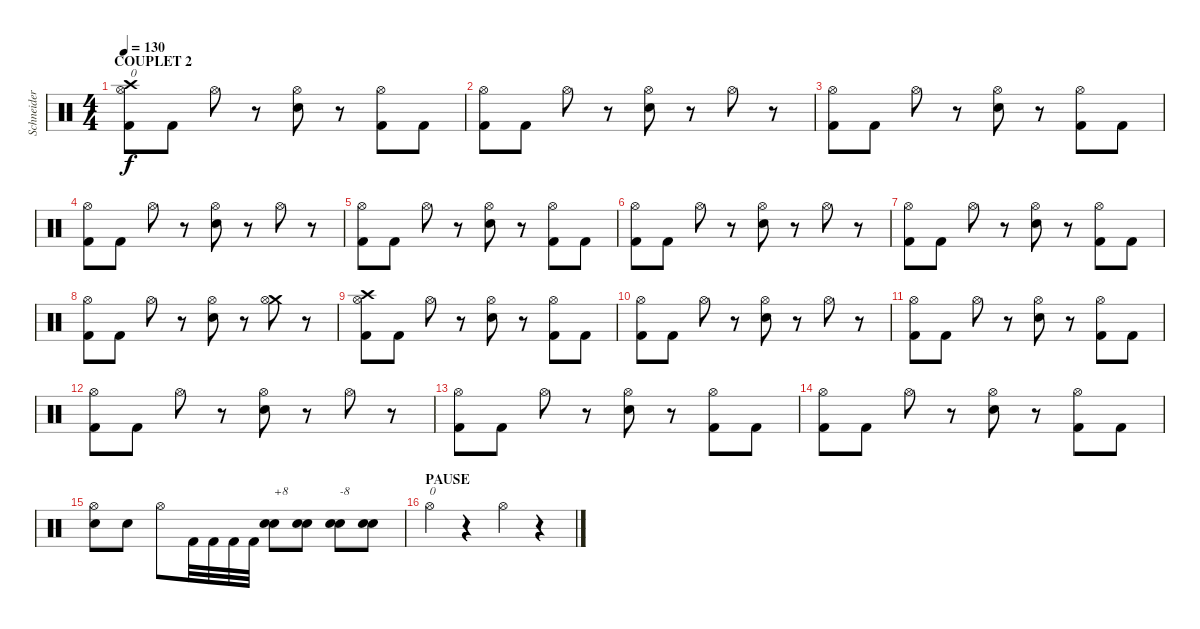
\track ("Schneider - Drums" "Schneider ") {instrument percussion}
\staff {score}
\articulation defaults
\ts (4 4)
\section ("" "COUPLET 2")
\tempo 130
\clef neutral
\ks c
("Kick (hit) 2" "Hi-Hat (open)" "Crash high (hit)").8{txt "0" dy f balance 8} "Kick (hit) 2".8 "Hi-Hat (open)".8 r.8 ("Electric Snare (hit)" "Hi-Hat (open)").8 r.8 ("Kick (hit) 2" "Hi-Hat (open)").8 "Kick (hit) 2".8 |
("Kick (hit) 2" "Hi-Hat (open)").8 "Kick (hit) 2".8 "Hi-Hat (open)".8 r.8 ("Electric Snare (hit)" "Hi-Hat (open)").8 r.8 "Hi-Hat (open)".8 r.8 |
("Kick (hit) 2" "Hi-Hat (open)").8 "Kick (hit) 2".8 "Hi-Hat (open)".8 r.8 ("Electric Snare (hit)" "Hi-Hat (open)").8 r.8 ("Kick (hit) 2" "Hi-Hat (open)").8 "Kick (hit) 2".8 |
("Kick (hit) 2" "Hi-Hat (open)").8 "Kick (hit) 2".8 "Hi-Hat (open)".8 r.8 ("Electric Snare (hit)" "Hi-Hat (open)").8 r.8 "Hi-Hat (open)".8 r.8 |
("Kick (hit) 2" "Hi-Hat (open)").8 "Kick (hit) 2".8 "Hi-Hat (open)".8 r.8 ("Electric Snare (hit)" "Hi-Hat (open)").8 r.8 ("Kick (hit) 2" "Hi-Hat (open)").8 "Kick (hit) 2".8 |
("Kick (hit) 2" "Hi-Hat (open)").8 "Kick (hit) 2".8 "Hi-Hat (open)".8 r.8 ("Electric Snare (hit)" "Hi-Hat (open)").8 r.8 "Hi-Hat (open)".8 r.8 |
("Kick (hit) 2" "Hi-Hat (open)").8 "Kick (hit) 2".8 "Hi-Hat (open)".8 r.8 ("Electric Snare (hit)" "Hi-Hat (open)").8 r.8 ("Kick (hit) 2" "Hi-Hat (open)").8 "Kick (hit) 2".8 |
("Kick (hit) 2" "Hi-Hat (open)").8 "Kick (hit) 2".8 "Hi-Hat (open)".8 r.8 ("Electric Snare (hit)" "Hi-Hat (open)").8 r.8 ("Crash medium (hit)" "Hi-Hat (open)").8 r.8 |
("Kick (hit) 2" "Hi-Hat (open)" "Crash high (hit)").8 "Kick (hit) 2".8 "Hi-Hat (open)".8 r.8 ("Electric Snare (hit)" "Hi-Hat (open)").8 r.8 ("Kick (hit) 2" "Hi-Hat (open)").8 "Kick (hit) 2".8 |
("Kick (hit) 2" "Hi-Hat (open)").8 "Kick (hit) 2".8 "Hi-Hat (open)".8 r.8 ("Electric Snare (hit)" "Hi-Hat (open)").8 r.8 "Hi-Hat (open)".8 r.8 |
("Kick (hit) 2" "Hi-Hat (open)").8 "Kick (hit) 2".8 "Hi-Hat (open)".8 r.8 ("Electric Snare (hit)" "Hi-Hat (open)").8 r.8 ("Kick (hit) 2" "Hi-Hat (open)").8 "Kick (hit) 2".8 |
("Kick (hit) 2" "Hi-Hat (open)").8 "Kick (hit) 2".8 "Hi-Hat (open)".8 r.8 ("Electric Snare (hit)" "Hi-Hat (open)").8 r.8 "Hi-Hat (open)".8 r.8 |
("Kick (hit) 2" "Hi-Hat (open)").8 "Kick (hit) 2".8 "Hi-Hat (open)".8 r.8 ("Electric Snare (hit)" "Hi-Hat (open)").8 r.8 ("Kick (hit) 2" "Hi-Hat (open)").8 "Kick (hit) 2".8 |
("Kick (hit) 2" "Hi-Hat (open)").8 "Kick (hit) 2".8 "Hi-Hat (open)".8 r.8 ("Electric Snare (hit)" "Hi-Hat (open)").8 r.8 ("Kick (hit) 2" "Hi-Hat (open)").8 "Kick (hit) 2".8 |
("Electric Snare (hit)" "Hi-Hat (open)").8 "Electric Snare (hit)".8 "Hi-Hat (open)".8 "Kick (hit) 2".32 "Kick (hit) 2".32 "Kick (hit) 2".32 "Kick (hit) 2".32 ("Electric Snare (hit)" "Electric Snare (hit)").8{txt "+8" balance 16} ("Electric Snare (hit)" "Electric Snare (hit)").8 ("Electric Snare (hit)" "Electric Snare (hit)").8{txt "-8" balance 0} ("Electric Snare (hit)" "Electric Snare (hit)").8 |
\section ("" "PAUSE")
"Hi-Hat (open)".4{txt "0" balance 8} r.4 "Hi-Hat (open)".4 r.4
